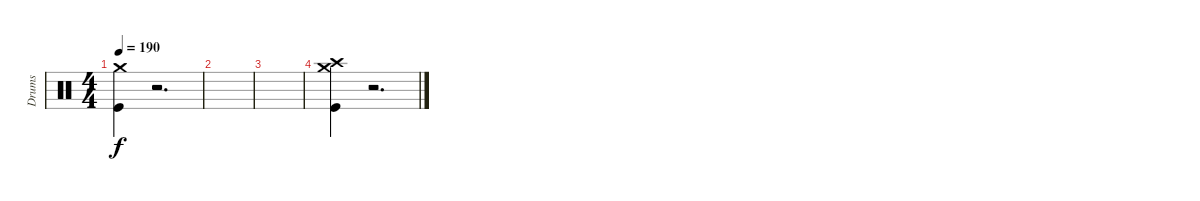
\track ("Drums" "Drums") {instrument percussion}
\staff {score}
\articulation defaults
\ts (4 4)
\tempo 190
\clef neutral
\ks c
("Crash medium (hit)" "Kick (hit)").4{dy f} r.2{d} |
|
|
("Crash high (hit)" "Crash medium (hit)" "Kick (hit)").4 r.2{d}
